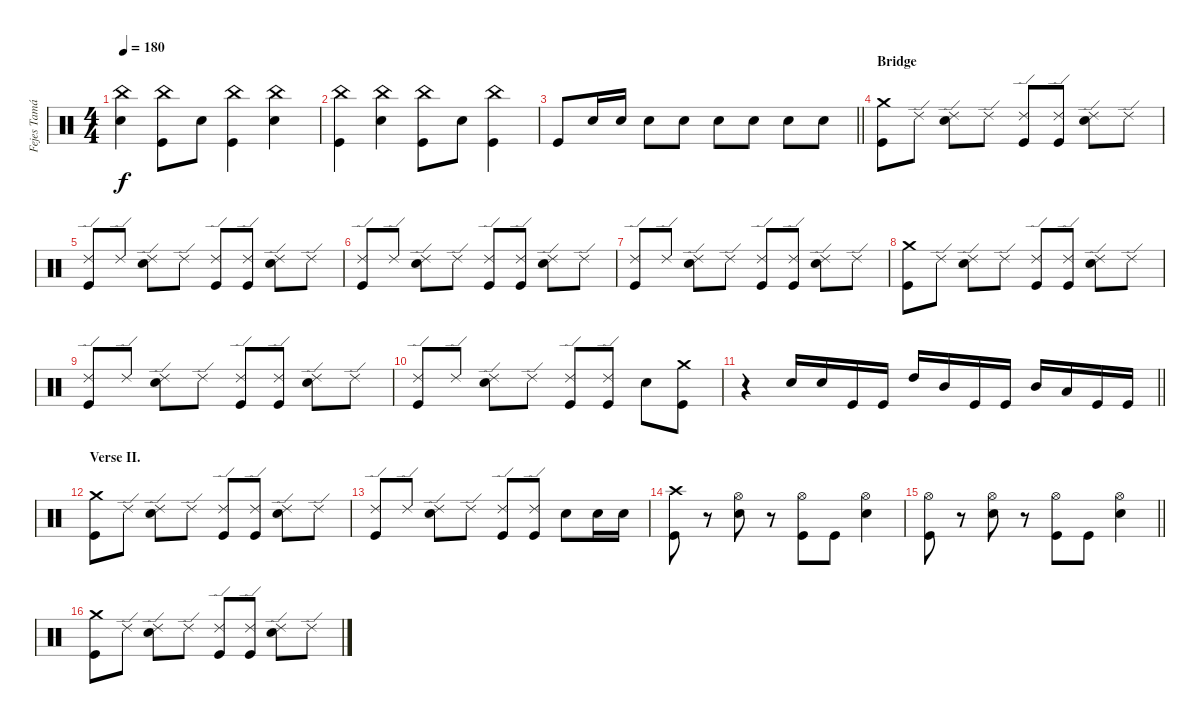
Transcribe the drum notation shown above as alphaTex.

\track ("Fejes Tamás - Dob" "Fejes Tamá") {instrument percussion}
\staff {score}
\articulation defaults
\ts (4 4)
\tempo 180
\clef neutral
\ks c
("China (hit)" "Electric Snare (hit)").4{dy f} ("China (hit)" "Kick (hit)").8 "Electric Snare (hit)".8 ("China (hit)" "Kick (hit)").4 ("China (hit)" "Electric Snare (hit)").4 |
("China (hit)" "Kick (hit)").4 ("China (hit)" "Electric Snare (hit)").4 ("China (hit)" "Kick (hit)").8 "Electric Snare (hit)".8 ("China (hit)" "Kick (hit)").4 |
\barLineRight lightlight "Kick (hit)".8 "Electric Snare (hit)".16 "Electric Snare (hit)".16 "Electric Snare (hit)".8 "Electric Snare (hit)".8 "Electric Snare (hit)".8 "Electric Snare (hit)".8 "Electric Snare (hit)".8 "Electric Snare (hit)".8
|
\section ("" "Bridge")
("Crash medium (hit)" "Kick (hit)").8 "Ride (edge) 2".8 ("Ride (edge) 2" "Electric Snare (hit)").8 "Ride (edge) 2".8 ("Ride (edge) 2" "Kick (hit)").8 ("Ride (edge) 2" "Kick (hit)").8 ("Ride (edge) 2" "Electric Snare (hit)").8 "Ride (edge) 2".8 |
("Ride (edge) 2" "Kick (hit)").8 "Ride (edge) 2".8 ("Ride (edge) 2" "Electric Snare (hit)").8 "Ride (edge) 2".8 ("Ride (edge) 2" "Kick (hit)").8 ("Ride (edge) 2" "Kick (hit)").8 ("Ride (edge) 2" "Electric Snare (hit)").8 "Ride (edge) 2".8 |
("Ride (edge) 2" "Kick (hit)").8 "Ride (edge) 2".8 ("Ride (edge) 2" "Electric Snare (hit)").8 "Ride (edge) 2".8 ("Ride (edge) 2" "Kick (hit)").8 ("Ride (edge) 2" "Kick (hit)").8 ("Ride (edge) 2" "Electric Snare (hit)").8 "Ride (edge) 2".8 |
("Ride (edge) 2" "Kick (hit)").8 "Ride (edge) 2".8 ("Ride (edge) 2" "Electric Snare (hit)").8 "Ride (edge) 2".8 ("Ride (edge) 2" "Kick (hit)").8 ("Ride (edge) 2" "Kick (hit)").8 ("Ride (edge) 2" "Electric Snare (hit)").8 "Ride (edge) 2".8 |
("Crash medium (hit)" "Kick (hit)").8 "Ride (edge) 2".8 ("Ride (edge) 2" "Electric Snare (hit)").8 "Ride (edge) 2".8 ("Ride (edge) 2" "Kick (hit)").8 ("Ride (edge) 2" "Kick (hit)").8 ("Ride (edge) 2" "Electric Snare (hit)").8 "Ride (edge) 2".8 |
("Ride (edge) 2" "Kick (hit)").8 "Ride (edge) 2".8 ("Ride (edge) 2" "Electric Snare (hit)").8 "Ride (edge) 2".8 ("Ride (edge) 2" "Kick (hit)").8 ("Ride (edge) 2" "Kick (hit)").8 ("Ride (edge) 2" "Electric Snare (hit)").8 "Ride (edge) 2".8 |
("Ride (edge) 2" "Kick (hit)").8 "Ride (edge) 2".8 ("Ride (edge) 2" "Electric Snare (hit)").8 "Ride (edge) 2".8 ("Ride (edge) 2" "Kick (hit)").8 ("Ride (edge) 2" "Kick (hit)").8 "Electric Snare (hit)".8 ("Crash medium (hit)" "Kick (hit)").8 |
\barLineRight lightlight
r.4 "Electric Snare (hit)".16 "Electric Snare (hit)".16 "Kick (hit)".16 "Kick (hit)".16 "High Tom (hit)".16 "Mid Tom (hit)".16 "Kick (hit)".16 "Kick (hit)".16 "Mid Tom (hit)".16 "Low Tom (hit)".16 "Kick (hit)".16 "Kick (hit)".16 |
\section ("" "Verse II.")
("Crash medium (hit)" "Kick (hit)").8 "Ride (edge) 2".8 ("Ride (edge) 2" "Electric Snare (hit)").8 "Ride (edge) 2".8 ("Ride (edge) 2" "Kick (hit)").8 ("Ride (edge) 2" "Kick (hit)").8 ("Ride (edge) 2" "Electric Snare (hit)").8 "Ride (edge) 2".8 |
("Ride (edge) 2" "Kick (hit)").8 "Ride (edge) 2".8 ("Ride (edge) 2" "Electric Snare (hit)").8 "Ride (edge) 2".8 ("Ride (edge) 2" "Kick (hit)").8 ("Ride (edge) 2" "Kick (hit)").8 "Electric Snare (hit)".8 "Electric Snare (hit)".16 "Electric Snare (hit)".16 |
("Crash high (hit)" "Kick (hit)").8 r.8 ("Hi-Hat (open)" "Electric Snare (hit)").8 r.8 ("Hi-Hat (open)" "Kick (hit)").8 "Kick (hit)".8 ("Hi-Hat (open)" "Electric Snare (hit)").4 |
\barLineRight lightlight
("Hi-Hat (open)" "Kick (hit)").8 r.8 ("Hi-Hat (open)" "Electric Snare (hit)").8 r.8 ("Hi-Hat (open)" "Kick (hit)").8 "Kick (hit)".8 ("Hi-Hat (open)" "Electric Snare (hit)").4 |
("Crash medium (hit)" "Kick (hit)").8 "Ride (edge) 2".8 ("Ride (edge) 2" "Electric Snare (hit)").8 "Ride (edge) 2".8 ("Ride (edge) 2" "Kick (hit)").8 ("Ride (edge) 2" "Kick (hit)").8 ("Ride (edge) 2" "Electric Snare (hit)").8 "Ride (edge) 2".8
